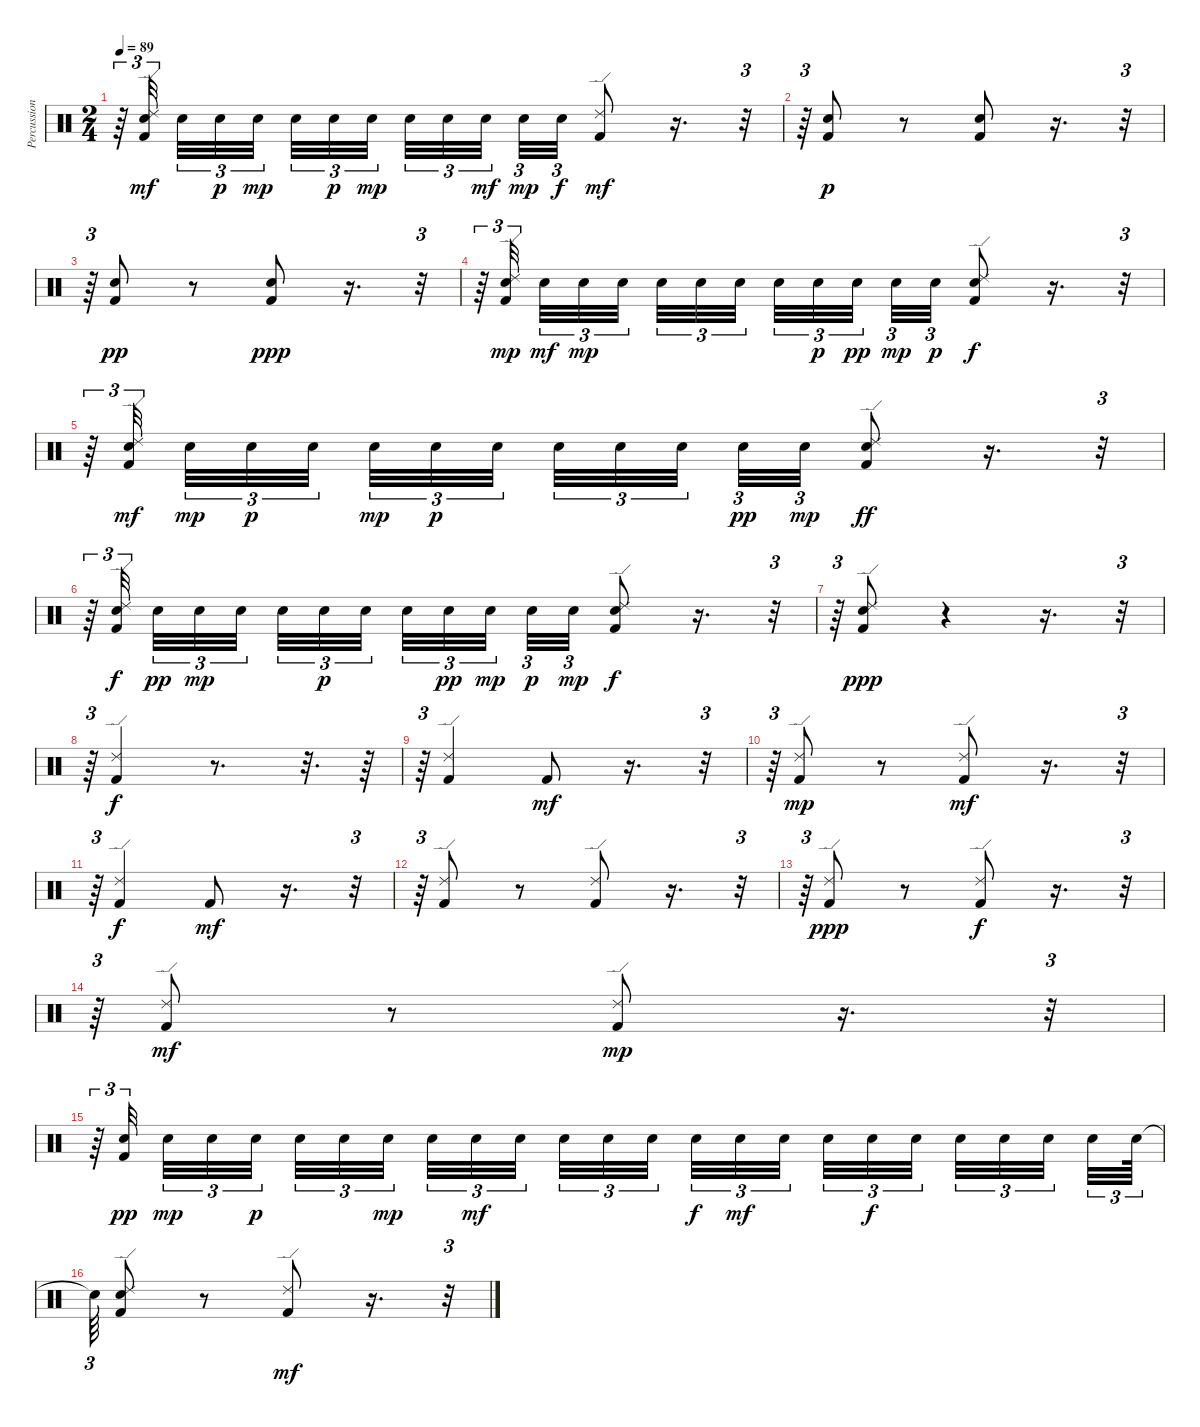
\track ("Percussion" "Percussion") {instrument percussion}
\staff {score}
\articulation defaults
\ts (2 4)
\tempo 89
\clef neutral
\ks c
r.64{tu (3 2) dy mp} ("Kick (hit) 2" "Ride (edge) 2" "Snare (hit) 2").32{tu (3 2) dy mf beam splitsecondary} "Snare (hit) 2".32{tu (3 2)} "Snare (hit) 2".32{tu (3 2) dy p} "Snare (hit) 2".32{tu (3 2) dy mp beam splitsecondary} "Snare (hit) 2".32{tu (3 2)} "Snare (hit) 2".32{tu (3 2) dy p} "Snare (hit) 2".32{tu (3 2) dy mp beam splitsecondary} "Snare (hit) 2".32{tu (3 2)} "Snare (hit) 2".32{tu (3 2)} "Snare (hit) 2".32{tu (3 2) dy mf beam splitsecondary} "Snare (hit) 2".32{tu (3 2) dy mp} "Snare (hit) 2".32{tu (3 2) dy f} ("Kick (hit) 2" "Ride (edge) 2").8{dy mf} r.16{d} r.32{tu (3 2)} |
r.64{tu (3 2)} ("Kick (hit) 2" "Snare (hit) 2").8{dy p} r.8 ("Kick (hit) 2" "Snare (hit) 2").8 r.16{d} r.32{tu (3 2)} |
r.64{tu (3 2)} ("Kick (hit) 2" "Snare (hit) 2").8{dy pp} r.8 ("Kick (hit) 2" "Snare (hit) 2").8{dy ppp} r.16{d} r.32{tu (3 2)} |
r.64{tu (3 2)} ("Kick (hit) 2" "Ride (edge) 2" "Snare (hit) 2").32{tu (3 2) dy mp beam splitsecondary} "Snare (hit) 2".32{tu (3 2) dy mf} "Snare (hit) 2".32{tu (3 2) dy mp} "Snare (hit) 2".32{tu (3 2) beam splitsecondary} "Snare (hit) 2".32{tu (3 2)} "Snare (hit) 2".32{tu (3 2)} "Snare (hit) 2".32{tu (3 2) beam splitsecondary} "Snare (hit) 2".32{tu (3 2)} "Snare (hit) 2".32{tu (3 2) dy p} "Snare (hit) 2".32{tu (3 2) dy pp beam splitsecondary} "Snare (hit) 2".32{tu (3 2) dy mp} "Snare (hit) 2".32{tu (3 2) dy p} ("Kick (hit) 2" "Ride (edge) 2" "Snare (hit) 2").8{dy f} r.16{d} r.32{tu (3 2)} |
r.64{tu (3 2)} ("Kick (hit) 2" "Ride (edge) 2" "Snare (hit) 2").32{tu (3 2) dy mf beam splitsecondary} "Snare (hit) 2".32{tu (3 2) dy mp} "Snare (hit) 2".32{tu (3 2) dy p} "Snare (hit) 2".32{tu (3 2) beam splitsecondary} "Snare (hit) 2".32{tu (3 2) dy mp} "Snare (hit) 2".32{tu (3 2) dy p} "Snare (hit) 2".32{tu (3 2) beam splitsecondary} "Snare (hit) 2".32{tu (3 2)} "Snare (hit) 2".32{tu (3 2)} "Snare (hit) 2".32{tu (3 2) beam splitsecondary} "Snare (hit) 2".32{tu (3 2) dy pp} "Snare (hit) 2".32{tu (3 2) dy mp} ("Kick (hit) 2" "Ride (edge) 2" "Snare (hit) 2").8{dy ff} r.16{d} r.32{tu (3 2)} |
r.64{tu (3 2)} ("Kick (hit) 2" "Ride (edge) 2" "Snare (hit) 2").32{tu (3 2) dy f beam splitsecondary} "Snare (hit) 2".32{tu (3 2) dy pp} "Snare (hit) 2".32{tu (3 2) dy mp} "Snare (hit) 2".32{tu (3 2) beam splitsecondary} "Snare (hit) 2".32{tu (3 2)} "Snare (hit) 2".32{tu (3 2) dy p} "Snare (hit) 2".32{tu (3 2) beam splitsecondary} "Snare (hit) 2".32{tu (3 2)} "Snare (hit) 2".32{tu (3 2) dy pp} "Snare (hit) 2".32{tu (3 2) dy mp beam splitsecondary} "Snare (hit) 2".32{tu (3 2) dy p} "Snare (hit) 2".32{tu (3 2) dy mp} ("Kick (hit) 2" "Ride (edge) 2" "Snare (hit) 2").8{dy f} r.16{d} r.32{tu (3 2)} |
r.64{tu (3 2)} ("Kick (hit) 2" "Snare (hit) 2" "Ride (edge) 2").8{dy ppp} r.4 r.16{d} r.32{tu (3 2)} |
r.64{tu (3 2)} ("Kick (hit) 2" "Ride (edge) 2").4{dy f} r.8{d} r.32{d} r.64 |
r.64{tu (3 2)} ("Kick (hit) 2" "Ride (edge) 2").4 "Kick (hit) 2".8{dy mf} r.16{d} r.32{tu (3 2)} |
r.64{tu (3 2)} ("Kick (hit) 2" "Ride (edge) 2").8{dy mp} r.8 ("Ride (edge) 2" "Kick (hit) 2").8{dy mf} r.16{d} r.32{tu (3 2)} |
r.64{tu (3 2)} ("Kick (hit) 2" "Ride (edge) 2").4{dy f} "Kick (hit) 2".8{dy mf} r.16{d} r.32{tu (3 2)} |
r.64{tu (3 2)} ("Kick (hit) 2" "Ride (edge) 2").8 r.8 ("Ride (edge) 2" "Kick (hit) 2").8 r.16{d} r.32{tu (3 2)} |
r.64{tu (3 2)} ("Kick (hit) 2" "Ride (edge) 2").8{dy ppp} r.8 ("Ride (edge) 2" "Kick (hit) 2").8{dy f} r.16{d} r.32{tu (3 2)} |
r.64{tu (3 2)} ("Kick (hit) 2" "Ride (edge) 2").8{dy mf} r.8 ("Kick (hit) 2" "Ride (edge) 2").8{dy mp} r.16{d} r.32{tu (3 2)} |
r.64{tu (3 2)} ("Kick (hit) 2" "Snare (hit) 2").32{tu (3 2) dy pp beam splitsecondary} "Snare (hit) 2".32{tu (3 2) dy mp} "Snare (hit) 2".32{tu (3 2)} "Snare (hit) 2".32{tu (3 2) dy p beam splitsecondary} "Snare (hit) 2".32{tu (3 2)} "Snare (hit) 2".32{tu (3 2)} "Snare (hit) 2".32{tu (3 2) dy mp beam splitsecondary} "Snare (hit) 2".32{tu (3 2)} "Snare (hit) 2".32{tu (3 2) dy mf} "Snare (hit) 2".32{tu (3 2) beam splitsecondary} "Snare (hit) 2".32{tu (3 2)} "Snare (hit) 2".32{tu (3 2)} "Snare (hit) 2".32{tu (3 2) beam splitsecondary} "Snare (hit) 2".32{tu (3 2) dy f} "Snare (hit) 2".32{tu (3 2) dy mf} "Snare (hit) 2".32{tu (3 2) beam splitsecondary} "Snare (hit) 2".32{tu (3 2)} "Snare (hit) 2".32{tu (3 2) dy f} "Snare (hit) 2".32{tu (3 2) beam splitsecondary} "Snare (hit) 2".32{tu (3 2)} "Snare (hit) 2".32{tu (3 2)} "Snare (hit) 2".32{tu (3 2) beam splitsecondary} "Snare (hit) 2".32{tu (3 2)} "Snare (hit) 2".64{tu (3 2)} |
"Snare (hit)"{t}.64{tu (3 2)} ("Kick (hit) 2" "Ride (edge) 2" "Snare (hit) 2").8 r.8 ("Ride (edge) 2" "Kick (hit) 2").8{dy mf} r.16{d} r.32{tu (3 2)}
